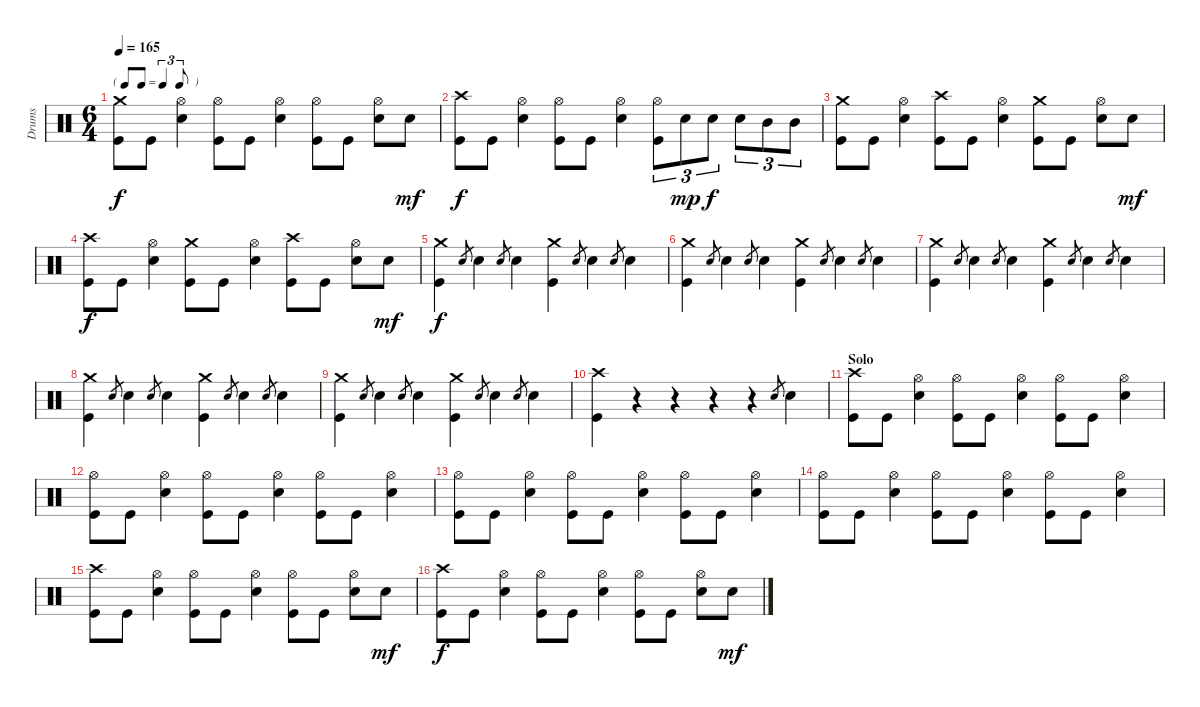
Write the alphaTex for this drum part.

\track ("Drums" "Drums") {instrument percussion}
\staff {score}
\articulation defaults
\ts (6 4)
\tf triplet8th
\tempo 165
\clef neutral
\ks c
("Crash medium (hit)" "Kick (hit)").8{dy f} "Kick (hit)".8 ("Hi-Hat (open)" "Electric Snare (hit)").4 ("Hi-Hat (open)" "Kick (hit)").8 "Kick (hit)".8 ("Hi-Hat (open)" "Electric Snare (hit)").4 ("Hi-Hat (open)" "Kick (hit)").8 "Kick (hit)".8 ("Hi-Hat (open)" "Electric Snare (hit)").8 "Electric Snare (hit)".8{dy mf} |
("Crash high (hit)" "Kick (hit)").8{dy f} "Kick (hit)".8 ("Hi-Hat (open)" "Electric Snare (hit)").4 ("Hi-Hat (open)" "Kick (hit)").8 "Kick (hit)".8 ("Hi-Hat (open)" "Electric Snare (hit)").4 ("Hi-Hat (open)" "Kick (hit)").8{tu (3 2)} "Electric Snare (hit)".8{tu (3 2) dy mp} "Electric Snare (hit)".8{tu (3 2) dy f} "Electric Snare (hit)".8{tu (3 2)} "Mid Tom (hit)".8{tu (3 2)} "Mid Tom (hit)".8{tu (3 2)} |
("Crash medium (hit)" "Kick (hit)").8 "Kick (hit)".8 ("Hi-Hat (open)" "Electric Snare (hit)").4 ("Crash high (hit)" "Kick (hit)").8 "Kick (hit)".8 ("Hi-Hat (open)" "Electric Snare (hit)").4 ("Crash medium (hit)" "Kick (hit)").8 "Kick (hit)".8 ("Hi-Hat (open)" "Electric Snare (hit)").8 "Electric Snare (hit)".8{dy mf} |
("Crash high (hit)" "Kick (hit)").8{dy f} "Kick (hit)".8 ("Hi-Hat (open)" "Electric Snare (hit)").4 ("Crash medium (hit)" "Kick (hit)").8 "Kick (hit)".8 ("Hi-Hat (open)" "Electric Snare (hit)").4 ("Crash high (hit)" "Kick (hit)").8 "Kick (hit)".8 ("Hi-Hat (open)" "Electric Snare (hit)").8 "Electric Snare (hit)".8{dy mf} |
("Crash medium (hit)" "Kick (hit)").4{dy f} "Electric Snare (hit)".8{gr} "Electric Snare (hit)".4 "Electric Snare (hit)".8{gr} "Electric Snare (hit)".4 ("Crash medium (hit)" "Kick (hit)").4 "Electric Snare (hit)".8{gr} "Electric Snare (hit)".4 "Electric Snare (hit)".8{gr} "Electric Snare (hit)".4 |
("Crash medium (hit)" "Kick (hit)").4 "Electric Snare (hit)".8{gr} "Electric Snare (hit)".4 "Electric Snare (hit)".8{gr} "Electric Snare (hit)".4 ("Crash medium (hit)" "Kick (hit)").4 "Electric Snare (hit)".8{gr} "Electric Snare (hit)".4 "Electric Snare (hit)".8{gr} "Electric Snare (hit)".4 |
("Crash medium (hit)" "Kick (hit)").4 "Electric Snare (hit)".8{gr} "Electric Snare (hit)".4 "Electric Snare (hit)".8{gr} "Electric Snare (hit)".4 ("Crash medium (hit)" "Kick (hit)").4 "Electric Snare (hit)".8{gr} "Electric Snare (hit)".4 "Electric Snare (hit)".8{gr} "Electric Snare (hit)".4 |
("Crash medium (hit)" "Kick (hit)").4 "Electric Snare (hit)".8{gr} "Electric Snare (hit)".4 "Electric Snare (hit)".8{gr} "Electric Snare (hit)".4 ("Crash medium (hit)" "Kick (hit)").4 "Electric Snare (hit)".8{gr} "Electric Snare (hit)".4 "Electric Snare (hit)".8{gr} "Electric Snare (hit)".4 |
("Crash medium (hit)" "Kick (hit)").4 "Electric Snare (hit)".8{gr} "Electric Snare (hit)".4 "Electric Snare (hit)".8{gr} "Electric Snare (hit)".4 ("Crash medium (hit)" "Kick (hit)").4 "Electric Snare (hit)".8{gr} "Electric Snare (hit)".4 "Electric Snare (hit)".8{gr} "Electric Snare (hit)".4 |
("Crash high (hit)" "Kick (hit)").4 r.4 r.4 r.4 r.4 "Electric Snare (hit)".8{gr} "Electric Snare (hit)".4 |
\section ("" "Solo")
("Crash high (hit)" "Kick (hit)").8 "Kick (hit)".8 ("Hi-Hat (open)" "Electric Snare (hit)").4 ("Hi-Hat (open)" "Kick (hit)").8 "Kick (hit)".8 ("Hi-Hat (open)" "Electric Snare (hit)").4 ("Hi-Hat (open)" "Kick (hit)").8 "Kick (hit)".8 ("Hi-Hat (open)" "Electric Snare (hit)").4 |
("Hi-Hat (open)" "Kick (hit)").8 "Kick (hit)".8 ("Hi-Hat (open)" "Electric Snare (hit)").4 ("Hi-Hat (open)" "Kick (hit)").8 "Kick (hit)".8 ("Hi-Hat (open)" "Electric Snare (hit)").4 ("Hi-Hat (open)" "Kick (hit)").8 "Kick (hit)".8 ("Hi-Hat (open)" "Electric Snare (hit)").4 |
("Hi-Hat (open)" "Kick (hit)").8 "Kick (hit)".8 ("Hi-Hat (open)" "Electric Snare (hit)").4 ("Hi-Hat (open)" "Kick (hit)").8 "Kick (hit)".8 ("Hi-Hat (open)" "Electric Snare (hit)").4 ("Hi-Hat (open)" "Kick (hit)").8 "Kick (hit)".8 ("Hi-Hat (open)" "Electric Snare (hit)").4 |
("Hi-Hat (open)" "Kick (hit)").8 "Kick (hit)".8 ("Hi-Hat (open)" "Electric Snare (hit)").4 ("Hi-Hat (open)" "Kick (hit)").8 "Kick (hit)".8 ("Hi-Hat (open)" "Electric Snare (hit)").4 ("Hi-Hat (open)" "Kick (hit)").8 "Kick (hit)".8 ("Hi-Hat (open)" "Electric Snare (hit)").4 |
("Crash high (hit)" "Kick (hit)").8 "Kick (hit)".8 ("Hi-Hat (open)" "Electric Snare (hit)").4 ("Hi-Hat (open)" "Kick (hit)").8 "Kick (hit)".8 ("Hi-Hat (open)" "Electric Snare (hit)").4 ("Hi-Hat (open)" "Kick (hit)").8 "Kick (hit)".8 ("Hi-Hat (open)" "Electric Snare (hit)").8 "Electric Snare (hit)".8{dy mf} |
("Crash high (hit)" "Kick (hit)").8{dy f} "Kick (hit)".8 ("Hi-Hat (open)" "Electric Snare (hit)").4 ("Hi-Hat (open)" "Kick (hit)").8 "Kick (hit)".8 ("Hi-Hat (open)" "Electric Snare (hit)").4 ("Hi-Hat (open)" "Kick (hit)").8 "Kick (hit)".8 ("Hi-Hat (open)" "Electric Snare (hit)").8 "Electric Snare (hit)".8{dy mf}
